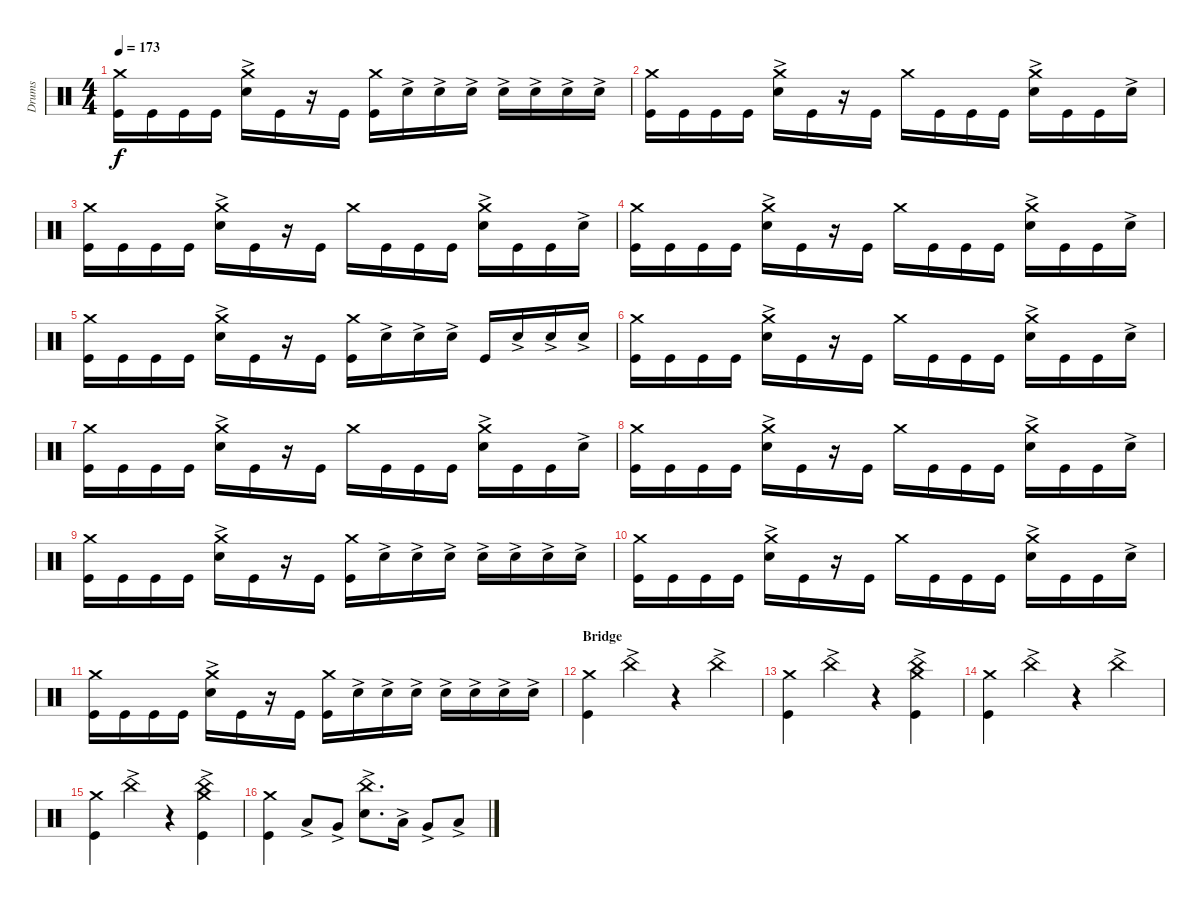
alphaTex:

\track ("Drums" "Drums") {instrument percussion}
\staff {score}
\articulation defaults
\ts (4 4)
\tempo 173
\clef neutral
\ks c
("Crash medium (hit)" "Kick (hit)").16{dy f} "Kick (hit)".16 "Kick (hit)".16 "Kick (hit)".16 ("Crash medium (hit)" "Snare (hit) 2"{ac}).16 "Kick (hit)".16 r.16 "Kick (hit)".16 ("Kick (hit)" "Crash medium (hit)").16 "Snare (hit) 2"{ac}.16 "Snare (hit) 2"{ac}.16 "Snare (hit) 2"{ac}.16 "Snare (hit) 2"{ac}.16 "Snare (hit) 2"{ac}.16 "Snare (hit) 2"{ac}.16 "Snare (hit) 2"{ac}.16 |
("Crash medium (hit)" "Kick (hit)").16 "Kick (hit)".16 "Kick (hit)".16 "Kick (hit)".16 ("Crash medium (hit)" "Snare (hit) 2"{ac}).16 "Kick (hit)".16 r.16 "Kick (hit)".16 "Crash medium (hit)".16 "Kick (hit)".16 "Kick (hit)".16 "Kick (hit)".16 ("Crash medium (hit)" "Snare (hit) 2"{ac}).16 "Kick (hit)".16 "Kick (hit)".16 "Snare (hit) 2"{ac}.16 |
("Crash medium (hit)" "Kick (hit)").16 "Kick (hit)".16 "Kick (hit)".16 "Kick (hit)".16 ("Crash medium (hit)" "Snare (hit) 2"{ac}).16 "Kick (hit)".16 r.16 "Kick (hit)".16 "Crash medium (hit)".16 "Kick (hit)".16 "Kick (hit)".16 "Kick (hit)".16 ("Crash medium (hit)" "Snare (hit) 2"{ac}).16 "Kick (hit)".16 "Kick (hit)".16 "Snare (hit) 2"{ac}.16 |
("Crash medium (hit)" "Kick (hit)").16 "Kick (hit)".16 "Kick (hit)".16 "Kick (hit)".16 ("Crash medium (hit)" "Snare (hit) 2"{ac}).16 "Kick (hit)".16 r.16 "Kick (hit)".16 "Crash medium (hit)".16 "Kick (hit)".16 "Kick (hit)".16 "Kick (hit)".16 ("Crash medium (hit)" "Snare (hit) 2"{ac}).16 "Kick (hit)".16 "Kick (hit)".16 "Snare (hit) 2"{ac}.16 |
("Crash medium (hit)" "Kick (hit)").16 "Kick (hit)".16 "Kick (hit)".16 "Kick (hit)".16 ("Crash medium (hit)" "Snare (hit) 2"{ac}).16 "Kick (hit)".16 r.16 "Kick (hit)".16 ("Kick (hit)" "Crash medium (hit)").16 "Snare (hit) 2"{ac}.16 "Snare (hit) 2"{ac}.16 "Snare (hit) 2"{ac}.16 "Kick (hit)".16 "Snare (hit) 2"{ac}.16 "Snare (hit) 2"{ac}.16 "Snare (hit) 2"{ac}.16 |
("Crash medium (hit)" "Kick (hit)").16 "Kick (hit)".16 "Kick (hit)".16 "Kick (hit)".16 ("Crash medium (hit)" "Snare (hit) 2"{ac}).16 "Kick (hit)".16 r.16 "Kick (hit)".16 "Crash medium (hit)".16 "Kick (hit)".16 "Kick (hit)".16 "Kick (hit)".16 ("Crash medium (hit)" "Snare (hit) 2"{ac}).16 "Kick (hit)".16 "Kick (hit)".16 "Snare (hit) 2"{ac}.16 |
("Crash medium (hit)" "Kick (hit)").16 "Kick (hit)".16 "Kick (hit)".16 "Kick (hit)".16 ("Crash medium (hit)" "Snare (hit) 2"{ac}).16 "Kick (hit)".16 r.16 "Kick (hit)".16 "Crash medium (hit)".16 "Kick (hit)".16 "Kick (hit)".16 "Kick (hit)".16 ("Crash medium (hit)" "Snare (hit) 2"{ac}).16 "Kick (hit)".16 "Kick (hit)".16 "Snare (hit) 2"{ac}.16 |
("Crash medium (hit)" "Kick (hit)").16 "Kick (hit)".16 "Kick (hit)".16 "Kick (hit)".16 ("Crash medium (hit)" "Snare (hit) 2"{ac}).16 "Kick (hit)".16 r.16 "Kick (hit)".16 "Crash medium (hit)".16 "Kick (hit)".16 "Kick (hit)".16 "Kick (hit)".16 ("Crash medium (hit)" "Snare (hit) 2"{ac}).16 "Kick (hit)".16 "Kick (hit)".16 "Snare (hit) 2"{ac}.16 |
("Crash medium (hit)" "Kick (hit)").16 "Kick (hit)".16 "Kick (hit)".16 "Kick (hit)".16 ("Crash medium (hit)" "Snare (hit) 2"{ac}).16 "Kick (hit)".16 r.16 "Kick (hit)".16 ("Kick (hit)" "Crash medium (hit)").16 "Snare (hit) 2"{ac}.16 "Snare (hit) 2"{ac}.16 "Snare (hit) 2"{ac}.16 "Snare (hit) 2"{ac}.16 "Snare (hit) 2"{ac}.16 "Snare (hit) 2"{ac}.16 "Snare (hit) 2"{ac}.16 |
("Crash medium (hit)" "Kick (hit)").16 "Kick (hit)".16 "Kick (hit)".16 "Kick (hit)".16 ("Crash medium (hit)" "Snare (hit) 2"{ac}).16 "Kick (hit)".16 r.16 "Kick (hit)".16 "Crash medium (hit)".16 "Kick (hit)".16 "Kick (hit)".16 "Kick (hit)".16 ("Crash medium (hit)" "Snare (hit) 2"{ac}).16 "Kick (hit)".16 "Kick (hit)".16 "Snare (hit) 2"{ac}.16 |
("Crash medium (hit)" "Kick (hit)").16 "Kick (hit)".16 "Kick (hit)".16 "Kick (hit)".16 ("Crash medium (hit)" "Snare (hit) 2"{ac}).16 "Kick (hit)".16 r.16 "Kick (hit)".16 ("Kick (hit)" "Crash medium (hit)").16 "Snare (hit) 2"{ac}.16 "Snare (hit) 2"{ac}.16 "Snare (hit) 2"{ac}.16 "Snare (hit) 2"{ac}.16 "Snare (hit) 2"{ac}.16 "Snare (hit) 2"{ac}.16 "Snare (hit) 2"{ac}.16 |
\section ("" "Bridge")
("Kick (hit)" "Crash medium (hit)").4 "China (hit)"{ac}.4 r.4 "China (hit)"{ac}.4 |
("Crash medium (hit)" "Kick (hit)").4 "China (hit)"{ac}.4 r.4 ("China (hit)"{ac} "Kick (hit)" "Crash medium (hit)").4 |
("Crash medium (hit)" "Kick (hit)").4 "China (hit)"{ac}.4 r.4 "China (hit)"{ac}.4 |
("Crash medium (hit)" "Kick (hit)").4 "China (hit)"{ac}.4 r.4 ("China (hit)"{ac} "Kick (hit)" "Crash medium (hit)").4 |
("Kick (hit)" "Crash medium (hit)").4 "Low Tom (hit)"{ac}.8 "Very Low Tom (hit)"{ac}.8 ("Snare (hit) 2"{ac} "China (hit)"{ac}).8{d} "Low Tom (hit)"{ac}.16 "Very Low Tom (hit)"{ac}.8 "Low Floor Tom (hit)"{ac}.8
